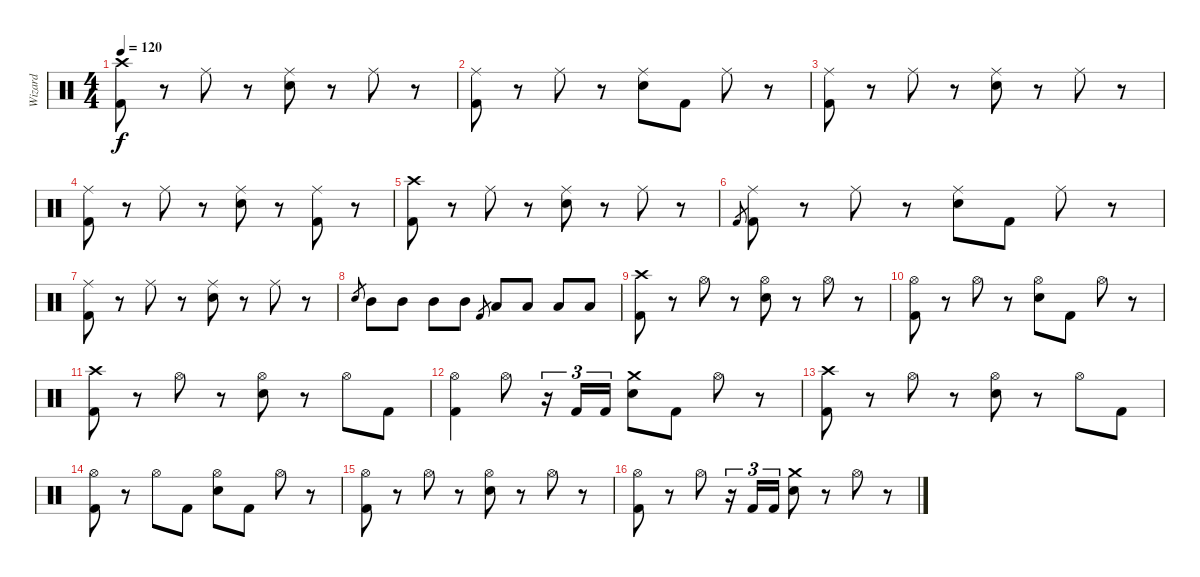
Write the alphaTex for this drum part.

\track ("Wizard" "Wizard") {instrument percussion}
\staff {score}
\articulation defaults
\ts (4 4)
\tempo 120
\clef neutral
\ks c
("Crash high (hit)" "Kick (hit) 2").8{dy f} r.8 "Ride (middle)".8 r.8 ("Ride (middle)" "Snare (hit) 2").8 r.8 "Ride (middle)".8 r.8 |
("Ride (middle)" "Kick (hit) 2").8 r.8 "Ride (middle)".8 r.8 ("Ride (middle)" "Snare (hit) 2").8 "Kick (hit) 2".8 "Ride (middle)".8 r.8 |
("Ride (middle)" "Kick (hit) 2").8 r.8 "Ride (middle)".8 r.8 ("Ride (middle)" "Snare (hit) 2").8 r.8 "Ride (middle)".8 r.8 |
("Ride (middle)" "Kick (hit) 2").8 r.8 "Ride (middle)".8 r.8 ("Ride (middle)" "Snare (hit) 2").8 r.8 ("Ride (middle)" "Kick (hit) 2").8 r.8 |
("Crash high (hit)" "Kick (hit) 2").8 r.8 "Ride (middle)".8 r.8 ("Ride (middle)" "Snare (hit) 2").8 r.8 "Ride (middle)".8 r.8 |
"Kick (hit) 2".8{gr} ("Ride (middle)" "Kick (hit) 2").8 r.8 "Ride (middle)".8 r.8 ("Ride (middle)" "Snare (hit) 2").8 "Kick (hit) 2".8 "Ride (middle)".8 r.8 |
("Ride (middle)" "Kick (hit) 2").8 r.8 "Ride (middle)".8 r.8 ("Ride (middle)" "Snare (hit) 2").8 r.8 "Ride (middle)".8 r.8 |
"Snare (hit) 2".8{gr} "Mid Tom (hit)".8 "Mid Tom (hit)".8 "Mid Tom (hit)".8 "Mid Tom (hit)".8 "Kick (hit) 2".8{gr} "Low Tom (hit)".8 "Low Tom (hit)".8 "Low Tom (hit)".8 "Low Tom (hit)".8 |
("Crash high (hit)" "Kick (hit) 2").8 r.8 "Hi-Hat (open)".8 r.8 ("Hi-Hat (open)" "Snare (hit) 2").8 r.8 "Hi-Hat (open)".8 r.8 |
("Hi-Hat (open)" "Kick (hit) 2").8 r.8 "Hi-Hat (open)".8 r.8 ("Hi-Hat (open)" "Snare (hit) 2").8 "Kick (hit) 2".8 "Hi-Hat (open)".8 r.8 |
("Crash high (hit)" "Kick (hit) 2").8 r.8 "Hi-Hat (open)".8 r.8 ("Hi-Hat (open)" "Snare (hit) 2").8 r.8 "Hi-Hat (open)".8 "Kick (hit) 2".8 |
("Hi-Hat (open)" "Kick (hit) 2").4 "Hi-Hat (open)".8 r.16{tu (3 2)} "Kick (hit) 2".16{tu (3 2)} "Kick (hit) 2".16{tu (3 2)} ("Crash medium (hit)" "Snare (hit) 2").8 "Kick (hit) 2".8 "Hi-Hat (open)".8 r.8 |
("Crash high (hit)" "Kick (hit) 2").8 r.8 "Hi-Hat (open)".8 r.8 ("Hi-Hat (open)" "Snare (hit) 2").8 r.8 "Hi-Hat (open)".8 "Kick (hit) 2".8 |
("Hi-Hat (open)" "Kick (hit) 2").8 r.8 "Hi-Hat (open)".8 "Kick (hit) 2".8 ("Hi-Hat (open)" "Snare (hit) 2").8 "Kick (hit) 2".8 "Hi-Hat (open)".8 r.8 |
("Hi-Hat (open)" "Kick (hit) 2").8 r.8 "Hi-Hat (open)".8 r.8 ("Hi-Hat (open)" "Snare (hit) 2").8 r.8 "Hi-Hat (open)".8 r.8 |
("Hi-Hat (open)" "Kick (hit) 2").8 r.8 "Hi-Hat (open)".8 r.16{tu (3 2)} "Kick (hit) 2".16{tu (3 2)} "Kick (hit) 2".16{tu (3 2)} ("Crash medium (hit)" "Snare (hit) 2").8 r.8 "Hi-Hat (open)".8 r.8
